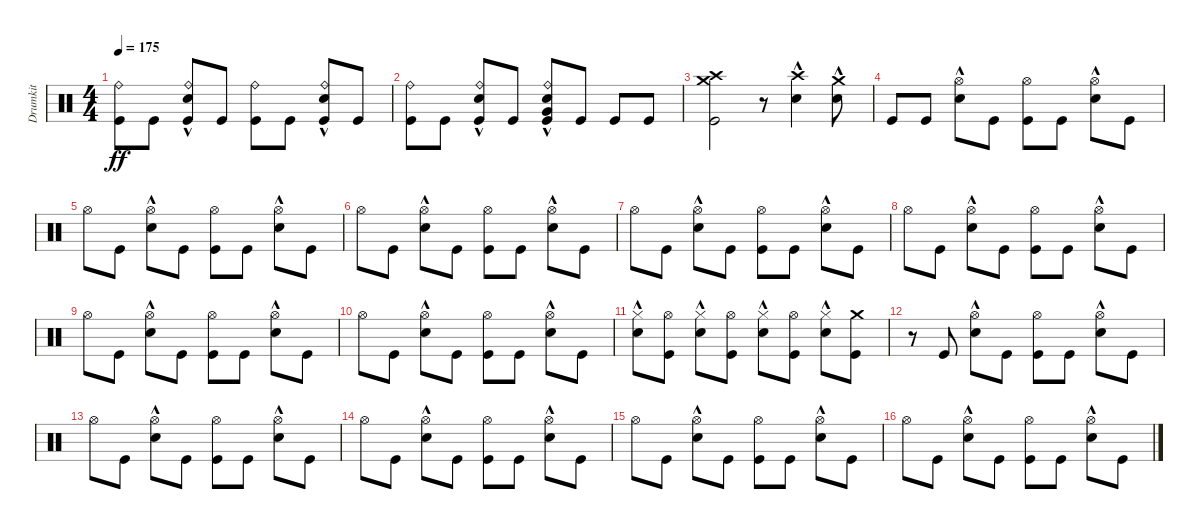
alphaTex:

\track ("Drumkit" "Drumkit") {instrument percussion}
\staff {score}
\articulation defaults
\ts (4 4)
\tempo 175
\clef neutral
\ks c
("Kick (hit)" "Ride (bell)").8{dy ff} "Kick (hit)".8 ("Kick (hit)" "Snare (hit) 2"{hac} "Ride (bell)").8 "Kick (hit)".8 ("Kick (hit)" "Ride (bell)").8 "Kick (hit)".8 ("Kick (hit)" "Snare (hit) 2"{hac} "Ride (bell)").8 "Kick (hit)".8 |
("Kick (hit)" "Ride (bell)").8 "Kick (hit)".8 ("Kick (hit)" "Snare (hit) 2"{hac} "Ride (bell)").8 "Kick (hit)".8 ("Kick (hit)" "Ride (bell)" "Snare (hit) 2"{hac} "Very Low Tom (hit)").8 "Kick (hit)".8 "Kick (hit)".8 "Kick (hit)".8 |
("Kick (hit)" "Crash high (hit)" "Crash medium (hit)").2 r.8 ("Snare (hit) 2"{hac} "Crash high (hit)").4 ("Snare (hit) 2"{hac} "Crash medium (hit)").8 |
"Kick (hit)".8 "Kick (hit)".8 ("Snare (hit) 2"{hac} "Hi-Hat (open)").8 "Kick (hit)".8 ("Kick (hit)" "Hi-Hat (open)").8 "Kick (hit)".8 ("Snare (hit) 2"{hac} "Hi-Hat (open)").8 "Kick (hit)".8 |
"Hi-Hat (open)".8 "Kick (hit)".8 ("Snare (hit) 2"{hac} "Hi-Hat (open)").8 "Kick (hit)".8 ("Kick (hit)" "Hi-Hat (open)").8 "Kick (hit)".8 ("Snare (hit) 2"{hac} "Hi-Hat (open)").8 "Kick (hit)".8 |
"Hi-Hat (open)".8 "Kick (hit)".8 ("Snare (hit) 2"{hac} "Hi-Hat (open)").8 "Kick (hit)".8 ("Kick (hit)" "Hi-Hat (open)").8 "Kick (hit)".8 ("Snare (hit) 2"{hac} "Hi-Hat (open)").8 "Kick (hit)".8 |
"Hi-Hat (open)".8 "Kick (hit)".8 ("Snare (hit) 2"{hac} "Hi-Hat (open)").8 "Kick (hit)".8 ("Kick (hit)" "Hi-Hat (open)").8 "Kick (hit)".8 ("Snare (hit) 2"{hac} "Hi-Hat (open)").8 "Kick (hit)".8 |
"Hi-Hat (open)".8 "Kick (hit)".8 ("Snare (hit) 2"{hac} "Hi-Hat (open)").8 "Kick (hit)".8 ("Kick (hit)" "Hi-Hat (open)").8 "Kick (hit)".8 ("Snare (hit) 2"{hac} "Hi-Hat (open)").8 "Kick (hit)".8 |
"Hi-Hat (open)".8 "Kick (hit)".8 ("Snare (hit) 2"{hac} "Hi-Hat (open)").8 "Kick (hit)".8 ("Kick (hit)" "Hi-Hat (open)").8 "Kick (hit)".8 ("Snare (hit) 2"{hac} "Hi-Hat (open)").8 "Kick (hit)".8 |
"Hi-Hat (open)".8 "Kick (hit)".8 ("Snare (hit) 2"{hac} "Hi-Hat (open)").8 "Kick (hit)".8 ("Kick (hit)" "Hi-Hat (open)").8 "Kick (hit)".8 ("Snare (hit) 2"{hac} "Hi-Hat (open)").8 "Kick (hit)".8 |
("Snare (hit) 2"{hac} "Hi-Hat (closed)").8 ("Kick (hit)" "Hi-Hat (open)").8 ("Snare (hit) 2"{hac} "Hi-Hat (closed)").8 ("Kick (hit)" "Hi-Hat (open)").8 ("Snare (hit) 2"{hac} "Hi-Hat (closed)").8 ("Kick (hit)" "Hi-Hat (open)").8 ("Snare (hit) 2"{hac} "Hi-Hat (closed)").8 ("Kick (hit)" "Crash medium (hit)").8 |
r.8 "Kick (hit)".8 ("Snare (hit) 2"{hac} "Hi-Hat (open)").8 "Kick (hit)".8 ("Kick (hit)" "Hi-Hat (open)").8 "Kick (hit)".8 ("Snare (hit) 2"{hac} "Hi-Hat (open)").8 "Kick (hit)".8 |
"Hi-Hat (open)".8 "Kick (hit)".8 ("Snare (hit) 2"{hac} "Hi-Hat (open)").8 "Kick (hit)".8 ("Kick (hit)" "Hi-Hat (open)").8 "Kick (hit)".8 ("Snare (hit) 2"{hac} "Hi-Hat (open)").8 "Kick (hit)".8 |
"Hi-Hat (open)".8 "Kick (hit)".8 ("Snare (hit) 2"{hac} "Hi-Hat (open)").8 "Kick (hit)".8 ("Kick (hit)" "Hi-Hat (open)").8 "Kick (hit)".8 ("Snare (hit) 2"{hac} "Hi-Hat (open)").8 "Kick (hit)".8 |
"Hi-Hat (open)".8 "Kick (hit)".8 ("Snare (hit) 2"{hac} "Hi-Hat (open)").8 "Kick (hit)".8 ("Kick (hit)" "Hi-Hat (open)").8 "Kick (hit)".8 ("Snare (hit) 2"{hac} "Hi-Hat (open)").8 "Kick (hit)".8 |
"Hi-Hat (open)".8 "Kick (hit)".8 ("Snare (hit) 2"{hac} "Hi-Hat (open)").8 "Kick (hit)".8 ("Kick (hit)" "Hi-Hat (open)").8 "Kick (hit)".8 ("Snare (hit) 2"{hac} "Hi-Hat (open)").8 "Kick (hit)".8
